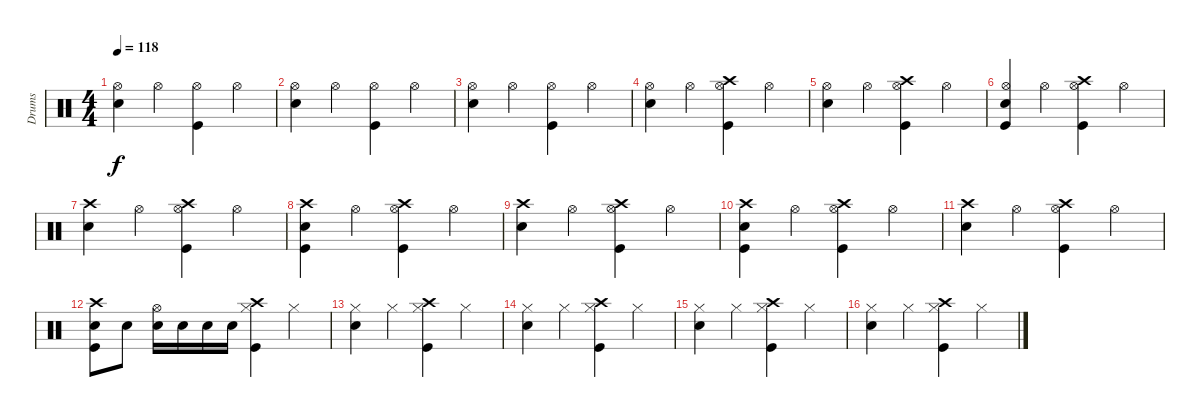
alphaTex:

\track ("Drums" "Drums") {instrument percussion}
\staff {score}
\articulation defaults
\ts (4 4)
\tempo 118
\clef neutral
\ks c
("Snare (hit) 2" "Hi-Hat (open)").4{dy f} "Hi-Hat (open)".4 ("Kick (hit)" "Hi-Hat (open)").4 "Hi-Hat (open)".4 |
("Snare (hit) 2" "Hi-Hat (open)").4 "Hi-Hat (open)".4 ("Kick (hit)" "Hi-Hat (open)").4 "Hi-Hat (open)".4 |
("Snare (hit) 2" "Hi-Hat (open)").4 "Hi-Hat (open)".4 ("Kick (hit)" "Hi-Hat (open)").4 "Hi-Hat (open)".4 |
("Snare (hit) 2" "Hi-Hat (open)").4 "Hi-Hat (open)".4 ("Kick (hit)" "Hi-Hat (open)" "Crash high (hit)").4 "Hi-Hat (open)".4 |
("Snare (hit) 2" "Hi-Hat (open)").4 "Hi-Hat (open)".4 ("Kick (hit)" "Hi-Hat (open)" "Crash high (hit)").4 "Hi-Hat (open)".4 |
("Kick (hit)" "Snare (hit) 2" "Hi-Hat (open)").4 "Hi-Hat (open)".4 ("Kick (hit)" "Hi-Hat (open)" "Crash high (hit)").4 "Hi-Hat (open)".4 |
("Snare (hit) 2" "Crash high (hit)").4 "Hi-Hat (open)".4 ("Kick (hit)" "Hi-Hat (open)" "Crash high (hit)").4 "Hi-Hat (open)".4 |
("Kick (hit)" "Snare (hit) 2" "Crash high (hit)").4 "Hi-Hat (open)".4 ("Kick (hit)" "Hi-Hat (open)" "Crash high (hit)").4 "Hi-Hat (open)".4 |
("Snare (hit) 2" "Crash high (hit)").4 "Hi-Hat (open)".4 ("Kick (hit)" "Hi-Hat (open)" "Crash high (hit)").4 "Hi-Hat (open)".4 |
("Kick (hit)" "Snare (hit) 2" "Crash high (hit)").4 "Hi-Hat (open)".4 ("Kick (hit)" "Hi-Hat (open)" "Crash high (hit)").4 "Hi-Hat (open)".4 |
("Snare (hit) 2" "Crash high (hit)").4 "Hi-Hat (open)".4 ("Kick (hit)" "Hi-Hat (open)" "Crash high (hit)").4 "Hi-Hat (open)".4 |
("Kick (hit)" "Snare (hit) 2" "Crash high (hit)").8 "Snare (hit) 2".8 ("Snare (hit) 2" "Hi-Hat (open)").16 "Snare (hit) 2".16 "Snare (hit) 2".16 "Snare (hit) 2".16 ("Kick (hit)" "Hi-Hat (closed)" "Crash high (hit)").4 "Hi-Hat (closed)".4 |
("Snare (hit) 2" "Hi-Hat (closed)").4 "Hi-Hat (closed)".4 ("Kick (hit)" "Hi-Hat (closed)" "Crash high (hit)").4 "Hi-Hat (closed)".4 |
("Snare (hit) 2" "Hi-Hat (closed)").4 "Hi-Hat (closed)".4 ("Kick (hit)" "Hi-Hat (closed)" "Crash high (hit)").4 "Hi-Hat (closed)".4 |
("Snare (hit) 2" "Hi-Hat (closed)").4 "Hi-Hat (closed)".4 ("Kick (hit)" "Hi-Hat (closed)" "Crash high (hit)").4 "Hi-Hat (closed)".4 |
("Snare (hit) 2" "Hi-Hat (closed)").4 "Hi-Hat (closed)".4 ("Kick (hit)" "Hi-Hat (closed)" "Crash high (hit)").4 "Hi-Hat (closed)".4
